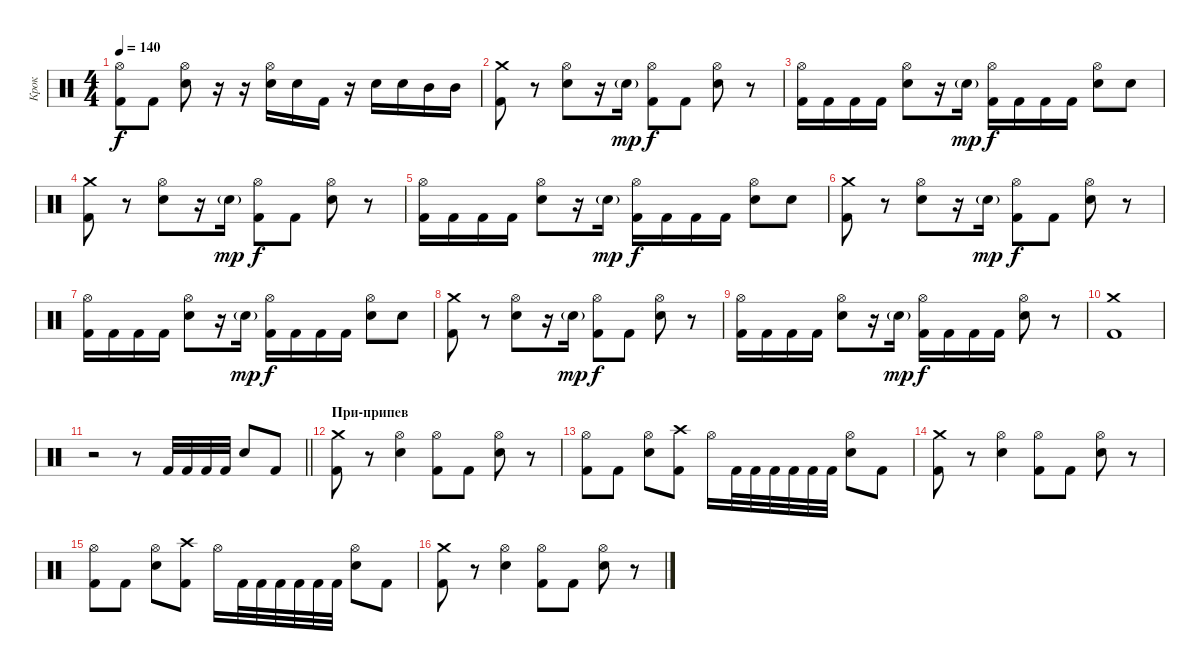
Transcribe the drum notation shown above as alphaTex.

\track ("Крок" "Крок") {instrument percussion}
\staff {score}
\articulation defaults
\ts (4 4)
\tempo 140
\clef neutral
\ks c
("Kick (hit) 2" "Hi-Hat (open)").8{dy f} "Kick (hit) 2".8 ("Electric Snare (hit)" "Hi-Hat (open)").8 r.16 r.16 ("Electric Snare (hit)" "Hi-Hat (open)").16 "Electric Snare (hit)".16 "Kick (hit) 2".16 r.16 "Electric Snare (hit)".16 "Electric Snare (hit)".16 "Mid Tom (hit)".16 "Mid Tom (hit)".16 |
("Kick (hit) 2" "Crash medium (hit)").8 r.8 ("Electric Snare (hit)" "Hi-Hat (open)").8 r.16 "Electric Snare (hit)"{g}.16{dy mp} ("Kick (hit) 2" "Hi-Hat (open)").8{dy f} "Kick (hit) 2".8 ("Electric Snare (hit)" "Hi-Hat (open)").8 r.8 |
("Kick (hit) 2" "Hi-Hat (open)").16 "Kick (hit) 2".16 "Kick (hit) 2".16 "Kick (hit) 2".16 ("Electric Snare (hit)" "Hi-Hat (open)").8 r.16 "Electric Snare (hit)"{g}.16{dy mp} ("Kick (hit) 2" "Hi-Hat (open)").16{dy f} "Kick (hit) 2".16 "Kick (hit) 2".16 "Kick (hit) 2".16 ("Electric Snare (hit)" "Hi-Hat (open)").8 "Electric Snare (hit)".8 |
("Kick (hit) 2" "Crash medium (hit)").8 r.8 ("Electric Snare (hit)" "Hi-Hat (open)").8 r.16 "Electric Snare (hit)"{g}.16{dy mp} ("Kick (hit) 2" "Hi-Hat (open)").8{dy f} "Kick (hit) 2".8 ("Electric Snare (hit)" "Hi-Hat (open)").8 r.8 |
("Kick (hit) 2" "Hi-Hat (open)").16 "Kick (hit) 2".16 "Kick (hit) 2".16 "Kick (hit) 2".16 ("Electric Snare (hit)" "Hi-Hat (open)").8 r.16 "Electric Snare (hit)"{g}.16{dy mp} ("Kick (hit) 2" "Hi-Hat (open)").16{dy f} "Kick (hit) 2".16 "Kick (hit) 2".16 "Kick (hit) 2".16 ("Electric Snare (hit)" "Hi-Hat (open)").8 "Electric Snare (hit)".8 |
("Kick (hit) 2" "Crash medium (hit)").8 r.8 ("Electric Snare (hit)" "Hi-Hat (open)").8 r.16 "Electric Snare (hit)"{g}.16{dy mp} ("Kick (hit) 2" "Hi-Hat (open)").8{dy f} "Kick (hit) 2".8 ("Electric Snare (hit)" "Hi-Hat (open)").8 r.8 |
("Kick (hit) 2" "Hi-Hat (open)").16 "Kick (hit) 2".16 "Kick (hit) 2".16 "Kick (hit) 2".16 ("Electric Snare (hit)" "Hi-Hat (open)").8 r.16 "Electric Snare (hit)"{g}.16{dy mp} ("Kick (hit) 2" "Hi-Hat (open)").16{dy f} "Kick (hit) 2".16 "Kick (hit) 2".16 "Kick (hit) 2".16 ("Electric Snare (hit)" "Hi-Hat (open)").8 "Electric Snare (hit)".8 |
("Kick (hit) 2" "Crash medium (hit)").8 r.8 ("Electric Snare (hit)" "Hi-Hat (open)").8 r.16 "Electric Snare (hit)"{g}.16{dy mp} ("Kick (hit) 2" "Hi-Hat (open)").8{dy f} "Kick (hit) 2".8 ("Electric Snare (hit)" "Hi-Hat (open)").8 r.8 |
("Kick (hit) 2" "Hi-Hat (open)").16 "Kick (hit) 2".16 "Kick (hit) 2".16 "Kick (hit) 2".16 ("Electric Snare (hit)" "Hi-Hat (open)").8 r.16 "Electric Snare (hit)"{g}.16{dy mp} ("Kick (hit) 2" "Hi-Hat (open)").16{dy f} "Kick (hit) 2".16 "Kick (hit) 2".16 "Kick (hit) 2".16 ("Electric Snare (hit)" "Hi-Hat (open)").8 r.8 |
("Kick (hit) 2" "Crash medium (hit)").1 |
\barLineRight lightlight
r.2 r.8 "Kick (hit) 2".32 "Kick (hit) 2".32 "Kick (hit) 2".32 "Kick (hit) 2".32 "Electric Snare (hit)".8 "Kick (hit) 2".8 |
\section ("" "При-припев")
("Kick (hit) 2" "Crash medium (hit)").8 r.8 ("Electric Snare (hit)" "Hi-Hat (open)").4 ("Kick (hit) 2" "Hi-Hat (open)").8 "Kick (hit) 2".8 ("Electric Snare (hit)" "Hi-Hat (open)").8 r.8 |
("Kick (hit) 2" "Hi-Hat (open)").8 "Kick (hit) 2".8 ("Electric Snare (hit)" "Hi-Hat (open)").8 ("Kick (hit) 2" "Crash high (hit)").8 "Hi-Hat (open)".16 "Kick (hit) 2".32 "Kick (hit) 2".32 "Kick (hit) 2".32 "Kick (hit) 2".32 "Kick (hit) 2".32 "Kick (hit) 2".32 ("Electric Snare (hit)" "Hi-Hat (open)").8 "Kick (hit) 2".8 |
("Kick (hit) 2" "Crash medium (hit)").8 r.8 ("Electric Snare (hit)" "Hi-Hat (open)").4 ("Kick (hit) 2" "Hi-Hat (open)").8 "Kick (hit) 2".8 ("Electric Snare (hit)" "Hi-Hat (open)").8 r.8 |
("Kick (hit) 2" "Hi-Hat (open)").8 "Kick (hit) 2".8 ("Electric Snare (hit)" "Hi-Hat (open)").8 ("Kick (hit) 2" "Crash high (hit)").8 "Hi-Hat (open)".16 "Kick (hit) 2".32 "Kick (hit) 2".32 "Kick (hit) 2".32 "Kick (hit) 2".32 "Kick (hit) 2".32 "Kick (hit) 2".32 ("Electric Snare (hit)" "Hi-Hat (open)").8 "Kick (hit) 2".8 |
("Kick (hit) 2" "Crash medium (hit)").8 r.8 ("Electric Snare (hit)" "Hi-Hat (open)").4 ("Kick (hit) 2" "Hi-Hat (open)").8 "Kick (hit) 2".8 ("Electric Snare (hit)" "Hi-Hat (open)").8 r.8
